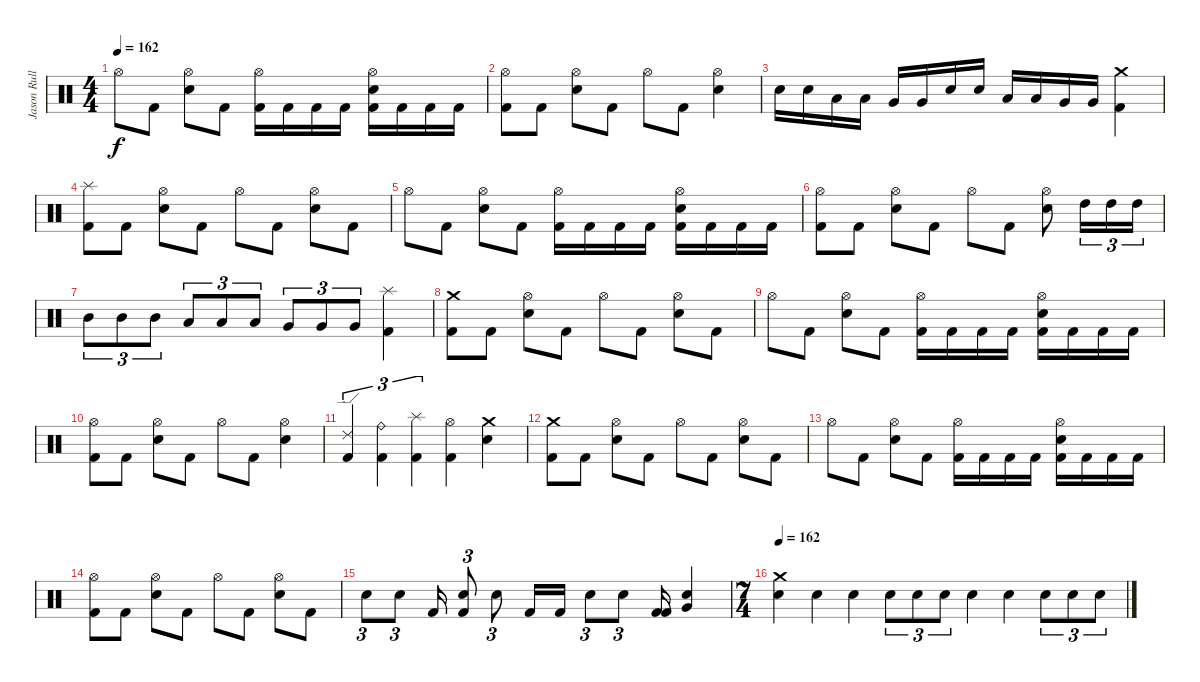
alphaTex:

\track ("Jason Rullo" "Jason Rull") {instrument percussion}
\staff {score}
\articulation defaults
\ts (4 4)
\tempo 162
\clef neutral
\ks c "Hi-Hat (open)".8{dy f} "Kick (hit) 2".8
("Hi-Hat (open)" "Electric Snare (hit)").8 "Kick (hit) 2".8 ("Kick (hit) 2" "Hi-Hat (open)").16 "Kick (hit) 2".16 "Kick (hit) 2".16 "Kick (hit) 2".16 ("Electric Snare (hit)" "Kick (hit) 2" "Hi-Hat (open)").16 "Kick (hit) 2".16 "Kick (hit) 2".16 "Kick (hit) 2".16 |
("Hi-Hat (open)" "Kick (hit) 2").8 "Kick (hit) 2".8 ("Electric Snare (hit)" "Hi-Hat (open)").8 "Kick (hit) 2".8 "Hi-Hat (open)".8 "Kick (hit) 2".8 ("Electric Snare (hit)" "Hi-Hat (open)").4 |
"Electric Snare (hit)".16 "Electric Snare (hit)".16 "Low Tom (hit)".16 "Low Tom (hit)".16 "Very Low Tom (hit)".16 "Very Low Tom (hit)".16 "Electric Snare (hit)".16 "Electric Snare (hit)".16 "Low Tom (hit)".16 "Low Tom (hit)".16 "Very Low Tom (hit)".16 "Very Low Tom (hit)".16 ("Crash medium (hit)" "Kick (hit) 2").4 |
("Splash (hit)" "Kick (hit) 2").8 "Kick (hit) 2".8 ("Electric Snare (hit)" "Hi-Hat (open)").8 "Kick (hit) 2".8 "Hi-Hat (open)".8 "Kick (hit) 2".8 ("Electric Snare (hit)" "Hi-Hat (open)").8 "Kick (hit) 2".8 |
"Hi-Hat (open)".8 "Kick (hit) 2".8 ("Hi-Hat (open)" "Electric Snare (hit)").8 "Kick (hit) 2".8 ("Kick (hit) 2" "Hi-Hat (open)").16 "Kick (hit) 2".16 "Kick (hit) 2".16 "Kick (hit) 2".16 ("Electric Snare (hit)" "Kick (hit) 2" "Hi-Hat (open)").16 "Kick (hit) 2".16 "Kick (hit) 2".16 "Kick (hit) 2".16 |
("Hi-Hat (open)" "Kick (hit) 2").8 "Kick (hit) 2".8 ("Electric Snare (hit)" "Hi-Hat (open)").8 "Kick (hit) 2".8 "Hi-Hat (open)".8 "Kick (hit) 2".8 ("Electric Snare (hit)" "Hi-Hat (open)").8 "High Tom (hit)".16{tu (3 2)} "High Tom (hit)".16{tu (3 2)} "High Tom (hit)".16{tu (3 2)} |
"Mid Tom (hit)".8{tu (3 2)} "Mid Tom (hit)".8{tu (3 2)} "Mid Tom (hit)".8{tu (3 2)} "Low Tom (hit)".8{tu (3 2)} "Low Tom (hit)".8{tu (3 2)} "Low Tom (hit)".8{tu (3 2)} "Very Low Tom (hit)".8{tu (3 2)} "Very Low Tom (hit)".8{tu (3 2)} "Very Low Tom (hit)".8{tu (3 2)} ("Splash (hit)" "Kick (hit) 2").4 |
("Kick (hit) 2" "Crash medium (hit)").8 "Kick (hit) 2".8 ("Electric Snare (hit)" "Hi-Hat (open)").8 "Kick (hit) 2".8 "Hi-Hat (open)".8 "Kick (hit) 2".8 ("Electric Snare (hit)" "Hi-Hat (open)").8 "Kick (hit) 2".8 |
"Hi-Hat (open)".8 "Kick (hit) 2".8 ("Hi-Hat (open)" "Electric Snare (hit)").8 "Kick (hit) 2".8 ("Kick (hit) 2" "Hi-Hat (open)").16 "Kick (hit) 2".16 "Kick (hit) 2".16 "Kick (hit) 2".16 ("Electric Snare (hit)" "Kick (hit) 2" "Hi-Hat (open)").16 "Kick (hit) 2".16 "Kick (hit) 2".16 "Kick (hit) 2".16 |
("Hi-Hat (open)" "Kick (hit) 2").8 "Kick (hit) 2".8 ("Electric Snare (hit)" "Hi-Hat (open)").8 "Kick (hit) 2".8 "Hi-Hat (open)".8 "Kick (hit) 2".8 ("Electric Snare (hit)" "Hi-Hat (open)").4 |
("Ride (edge) 2" "Kick (hit) 2").4{tu (3 2)} ("Ride (bell)" "Kick (hit) 2").4{tu (3 2)} ("Splash (hit)" "Kick (hit) 2").4{tu (3 2)} ("Hi-Hat (open)" "Kick (hit) 2").4 ("Crash medium (hit)" "Electric Snare (hit)").4 |
("Kick (hit) 2" "Crash medium (hit)").8 "Kick (hit) 2".8 ("Electric Snare (hit)" "Hi-Hat (open)").8 "Kick (hit) 2".8 "Hi-Hat (open)".8 "Kick (hit) 2".8 ("Electric Snare (hit)" "Hi-Hat (open)").8 "Kick (hit) 2".8 |
"Hi-Hat (open)".8 "Kick (hit) 2".8 ("Hi-Hat (open)" "Electric Snare (hit)").8 "Kick (hit) 2".8 ("Kick (hit) 2" "Hi-Hat (open)").16 "Kick (hit) 2".16 "Kick (hit) 2".16 "Kick (hit) 2".16 ("Electric Snare (hit)" "Kick (hit) 2" "Hi-Hat (open)").16 "Kick (hit) 2".16 "Kick (hit) 2".16 "Kick (hit) 2".16 |
("Hi-Hat (open)" "Kick (hit) 2").8 "Kick (hit) 2".8 ("Electric Snare (hit)" "Hi-Hat (open)").8 "Kick (hit) 2".8 "Hi-Hat (open)".8 "Kick (hit) 2".8 ("Electric Snare (hit)" "Hi-Hat (open)").8 "Kick (hit) 2".8 |
"Electric Snare (hit)".8{tu (3 2)} "Electric Snare (hit)".8{tu (3 2)} "Kick (hit) 2".16 ("Kick (hit) 2" "Electric Snare (hit)").8{tu (3 2)} "Electric Snare (hit)".8{tu (3 2)} "Kick (hit) 2".16 "Kick (hit) 2".16 "Electric Snare (hit)".8{tu (3 2)} "Electric Snare (hit)".8{tu (3 2)} ("Kick (hit) 2" "Kick (hit) 2").16 ("Very Low Tom (hit)" "Electric Snare (hit)").4 |
\ts (7 4)
\tempo 162
("Crash medium (hit)" "Electric Snare (hit)").4 "Electric Snare (hit)".4 "Electric Snare (hit)".4 "Electric Snare (hit)".8{tu (3 2)} "Electric Snare (hit)".8{tu (3 2)} "Electric Snare (hit)".8{tu (3 2)} "Electric Snare (hit)".4 "Electric Snare (hit)".4 "Electric Snare (hit)".8{tu (3 2)} "Electric Snare (hit)".8{tu (3 2)} "Electric Snare (hit)".8{tu (3 2)}
